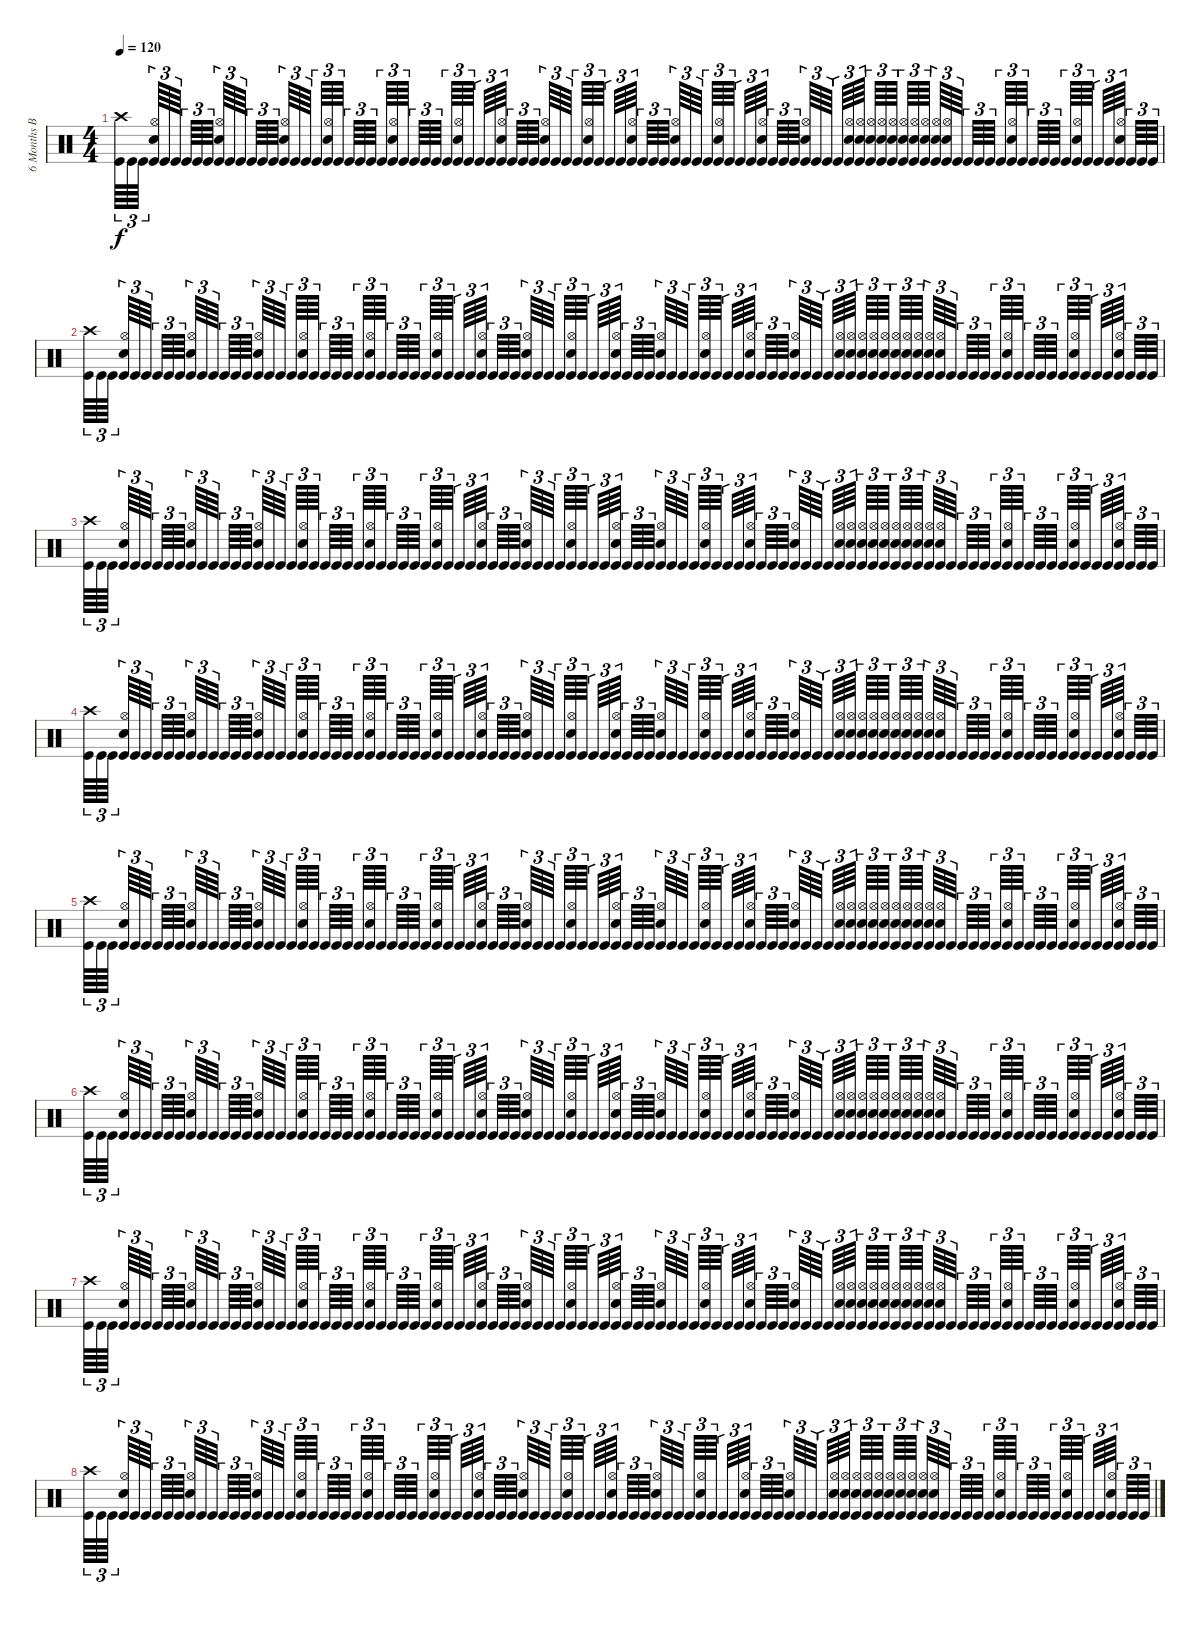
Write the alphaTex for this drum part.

\track ("6 Months Baby" "6 Months B") {instrument percussion}
\staff {score}
\articulation defaults
\ts (4 4)
\tempo 120
\clef neutral
\ks c
("Crash high (hit)" "Kick (hit)").64{tu (3 2) dy f} "Kick (hit)".64{tu (3 2)} "Kick (hit)".64{tu (3 2)} ("Hi-Hat (open)" "Snare (hit) 2" "Kick (hit)").64{tu (3 2)} "Kick (hit)".64{tu (3 2)} "Kick (hit)".64{tu (3 2)} "Kick (hit)".64{tu (3 2)} "Kick (hit)".64{tu (3 2)} "Kick (hit)".64{tu (3 2)} ("Hi-Hat (open)" "Snare (hit) 2" "Kick (hit)").64{tu (3 2)} "Kick (hit)".64{tu (3 2)} "Kick (hit)".64{tu (3 2)} "Kick (hit)".64{tu (3 2)} "Kick (hit)".64{tu (3 2)} "Kick (hit)".64{tu (3 2)} ("Hi-Hat (open)" "Snare (hit) 2" "Kick (hit)").64{tu (3 2)} "Kick (hit)".64{tu (3 2)} "Kick (hit)".64{tu (3 2)} "Kick (hit)".64{tu (3 2)} ("Hi-Hat (open)" "Snare (hit) 2" "Kick (hit)").64{tu (3 2)} "Kick (hit)".64{tu (3 2)} "Kick (hit)".64{tu (3 2)} "Kick (hit)".64{tu (3 2)} "Kick (hit)".64{tu (3 2)} "Kick (hit)".64{tu (3 2)} ("Hi-Hat (open)" "Snare (hit) 2" "Kick (hit)").64{tu (3 2)} "Kick (hit)".64{tu (3 2)} "Kick (hit)".64{tu (3 2)} "Kick (hit)".64{tu (3 2)} "Kick (hit)".64{tu (3 2)} "Kick (hit)".64{tu (3 2)} ("Hi-Hat (open)" "Snare (hit) 2" "Kick (hit)").64{tu (3 2)} "Kick (hit)".64{tu (3 2)} "Kick (hit)".64{tu (3 2)} "Kick (hit)".64{tu (3 2)} ("Hi-Hat (open)" "Snare (hit) 2" "Kick (hit)").64{tu (3 2)} "Kick (hit)".64{tu (3 2)} "Kick (hit)".64{tu (3 2)} "Kick (hit)".64{tu (3 2)} ("Hi-Hat (open)" "Snare (hit) 2" "Kick (hit)").64{tu (3 2)} "Kick (hit)".64{tu (3 2)} "Kick (hit)".64{tu (3 2)} "Kick (hit)".64{tu (3 2)} ("Hi-Hat (open)" "Snare (hit) 2" "Kick (hit)").64{tu (3 2)} "Kick (hit)".64{tu (3 2)} "Kick (hit)".64{tu (3 2)} "Kick (hit)".64{tu (3 2)} ("Hi-Hat (open)" "Snare (hit) 2" "Kick (hit)").64{tu (3 2)} "Kick (hit)".64{tu (3 2)} "Kick (hit)".64{tu (3 2)} "Kick (hit)".64{tu (3 2)} ("Hi-Hat (open)" "Snare (hit) 2" "Kick (hit)").64{tu (3 2)} "Kick (hit)".64{tu (3 2)} "Kick (hit)".64{tu (3 2)} "Kick (hit)".64{tu (3 2)} ("Hi-Hat (open)" "Snare (hit) 2" "Kick (hit)").64{tu (3 2)} "Kick (hit)".64{tu (3 2)} "Kick (hit)".64{tu (3 2)} "Kick (hit)".64{tu (3 2)} ("Hi-Hat (open)" "Snare (hit) 2" "Kick (hit)").64{tu (3 2)} "Kick (hit)".64{tu (3 2)} "Kick (hit)".64{tu (3 2)} "Kick (hit)".64{tu (3 2)} ("Hi-Hat (open)" "Snare (hit) 2" "Kick (hit)").64{tu (3 2)} "Kick (hit)".64{tu (3 2)} "Kick (hit)".64{tu (3 2)} "Kick (hit)".64{tu (3 2)} ("Hi-Hat (open)" "Snare (hit) 2" "Kick (hit)").64{tu (3 2)} ("Hi-Hat (open)" "Snare (hit) 2" "Kick (hit)").64{tu (3 2)} ("Hi-Hat (open)" "Snare (hit) 2" "Kick (hit)").64{tu (3 2)} ("Hi-Hat (open)" "Snare (hit) 2" "Kick (hit)").64{tu (3 2)} ("Hi-Hat (open)" "Snare (hit) 2" "Kick (hit)").64{tu (3 2)} ("Hi-Hat (open)" "Snare (hit) 2" "Kick (hit)").64{tu (3 2)} ("Hi-Hat (open)" "Snare (hit) 2" "Kick (hit)").64{tu (3 2)} ("Hi-Hat (open)" "Snare (hit) 2" "Kick (hit)").64{tu (3 2)} ("Hi-Hat (open)" "Snare (hit) 2" "Kick (hit)").64{tu (3 2)} ("Hi-Hat (open)" "Snare (hit) 2" "Kick (hit)").64{tu (3 2)} "Kick (hit)".64{tu (3 2)} "Kick (hit)".64{tu (3 2)} "Kick (hit)".64{tu (3 2)} "Kick (hit)".64{tu (3 2)} "Kick (hit)".64{tu (3 2)} ("Hi-Hat (open)" "Snare (hit) 2" "Kick (hit)").64{tu (3 2)} "Kick (hit)".64{tu (3 2)} "Kick (hit)".64{tu (3 2)} "Kick (hit)".64{tu (3 2)} "Kick (hit)".64{tu (3 2)} "Kick (hit)".64{tu (3 2)} ("Hi-Hat (open)" "Snare (hit) 2" "Kick (hit)").64{tu (3 2)} "Kick (hit)".64{tu (3 2)} "Kick (hit)".64{tu (3 2)} "Kick (hit)".64{tu (3 2)} ("Hi-Hat (open)" "Snare (hit) 2" "Kick (hit)").64{tu (3 2)} "Kick (hit)".64{tu (3 2)} "Kick (hit)".64{tu (3 2)} "Kick (hit)".64{tu (3 2)} |
("Crash high (hit)" "Kick (hit)").64{tu (3 2)} "Kick (hit)".64{tu (3 2)} "Kick (hit)".64{tu (3 2)} ("Hi-Hat (open)" "Snare (hit) 2" "Kick (hit)").64{tu (3 2)} "Kick (hit)".64{tu (3 2)} "Kick (hit)".64{tu (3 2)} "Kick (hit)".64{tu (3 2)} "Kick (hit)".64{tu (3 2)} "Kick (hit)".64{tu (3 2)} ("Hi-Hat (open)" "Snare (hit) 2" "Kick (hit)").64{tu (3 2)} "Kick (hit)".64{tu (3 2)} "Kick (hit)".64{tu (3 2)} "Kick (hit)".64{tu (3 2)} "Kick (hit)".64{tu (3 2)} "Kick (hit)".64{tu (3 2)} ("Hi-Hat (open)" "Snare (hit) 2" "Kick (hit)").64{tu (3 2)} "Kick (hit)".64{tu (3 2)} "Kick (hit)".64{tu (3 2)} "Kick (hit)".64{tu (3 2)} ("Hi-Hat (open)" "Snare (hit) 2" "Kick (hit)").64{tu (3 2)} "Kick (hit)".64{tu (3 2)} "Kick (hit)".64{tu (3 2)} "Kick (hit)".64{tu (3 2)} "Kick (hit)".64{tu (3 2)} "Kick (hit)".64{tu (3 2)} ("Hi-Hat (open)" "Snare (hit) 2" "Kick (hit)").64{tu (3 2)} "Kick (hit)".64{tu (3 2)} "Kick (hit)".64{tu (3 2)} "Kick (hit)".64{tu (3 2)} "Kick (hit)".64{tu (3 2)} "Kick (hit)".64{tu (3 2)} ("Hi-Hat (open)" "Snare (hit) 2" "Kick (hit)").64{tu (3 2)} "Kick (hit)".64{tu (3 2)} "Kick (hit)".64{tu (3 2)} "Kick (hit)".64{tu (3 2)} ("Hi-Hat (open)" "Snare (hit) 2" "Kick (hit)").64{tu (3 2)} "Kick (hit)".64{tu (3 2)} "Kick (hit)".64{tu (3 2)} "Kick (hit)".64{tu (3 2)} ("Hi-Hat (open)" "Snare (hit) 2" "Kick (hit)").64{tu (3 2)} "Kick (hit)".64{tu (3 2)} "Kick (hit)".64{tu (3 2)} "Kick (hit)".64{tu (3 2)} ("Hi-Hat (open)" "Snare (hit) 2" "Kick (hit)").64{tu (3 2)} "Kick (hit)".64{tu (3 2)} "Kick (hit)".64{tu (3 2)} "Kick (hit)".64{tu (3 2)} ("Hi-Hat (open)" "Snare (hit) 2" "Kick (hit)").64{tu (3 2)} "Kick (hit)".64{tu (3 2)} "Kick (hit)".64{tu (3 2)} "Kick (hit)".64{tu (3 2)} ("Hi-Hat (open)" "Snare (hit) 2" "Kick (hit)").64{tu (3 2)} "Kick (hit)".64{tu (3 2)} "Kick (hit)".64{tu (3 2)} "Kick (hit)".64{tu (3 2)} ("Hi-Hat (open)" "Snare (hit) 2" "Kick (hit)").64{tu (3 2)} "Kick (hit)".64{tu (3 2)} "Kick (hit)".64{tu (3 2)} "Kick (hit)".64{tu (3 2)} ("Hi-Hat (open)" "Snare (hit) 2" "Kick (hit)").64{tu (3 2)} "Kick (hit)".64{tu (3 2)} "Kick (hit)".64{tu (3 2)} "Kick (hit)".64{tu (3 2)} ("Hi-Hat (open)" "Snare (hit) 2" "Kick (hit)").64{tu (3 2)} "Kick (hit)".64{tu (3 2)} "Kick (hit)".64{tu (3 2)} "Kick (hit)".64{tu (3 2)} ("Hi-Hat (open)" "Snare (hit) 2" "Kick (hit)").64{tu (3 2)} ("Hi-Hat (open)" "Snare (hit) 2" "Kick (hit)").64{tu (3 2)} ("Hi-Hat (open)" "Snare (hit) 2" "Kick (hit)").64{tu (3 2)} ("Hi-Hat (open)" "Snare (hit) 2" "Kick (hit)").64{tu (3 2)} ("Hi-Hat (open)" "Snare (hit) 2" "Kick (hit)").64{tu (3 2)} ("Hi-Hat (open)" "Snare (hit) 2" "Kick (hit)").64{tu (3 2)} ("Hi-Hat (open)" "Snare (hit) 2" "Kick (hit)").64{tu (3 2)} ("Hi-Hat (open)" "Snare (hit) 2" "Kick (hit)").64{tu (3 2)} ("Hi-Hat (open)" "Snare (hit) 2" "Kick (hit)").64{tu (3 2)} ("Hi-Hat (open)" "Snare (hit) 2" "Kick (hit)").64{tu (3 2)} "Kick (hit)".64{tu (3 2)} "Kick (hit)".64{tu (3 2)} "Kick (hit)".64{tu (3 2)} "Kick (hit)".64{tu (3 2)} "Kick (hit)".64{tu (3 2)} ("Hi-Hat (open)" "Snare (hit) 2" "Kick (hit)").64{tu (3 2)} "Kick (hit)".64{tu (3 2)} "Kick (hit)".64{tu (3 2)} "Kick (hit)".64{tu (3 2)} "Kick (hit)".64{tu (3 2)} "Kick (hit)".64{tu (3 2)} ("Hi-Hat (open)" "Snare (hit) 2" "Kick (hit)").64{tu (3 2)} "Kick (hit)".64{tu (3 2)} "Kick (hit)".64{tu (3 2)} "Kick (hit)".64{tu (3 2)} ("Hi-Hat (open)" "Snare (hit) 2" "Kick (hit)").64{tu (3 2)} "Kick (hit)".64{tu (3 2)} "Kick (hit)".64{tu (3 2)} "Kick (hit)".64{tu (3 2)} |
("Crash high (hit)" "Kick (hit)").64{tu (3 2)} "Kick (hit)".64{tu (3 2)} "Kick (hit)".64{tu (3 2)} ("Hi-Hat (open)" "Snare (hit) 2" "Kick (hit)").64{tu (3 2)} "Kick (hit)".64{tu (3 2)} "Kick (hit)".64{tu (3 2)} "Kick (hit)".64{tu (3 2)} "Kick (hit)".64{tu (3 2)} "Kick (hit)".64{tu (3 2)} ("Hi-Hat (open)" "Snare (hit) 2" "Kick (hit)").64{tu (3 2)} "Kick (hit)".64{tu (3 2)} "Kick (hit)".64{tu (3 2)} "Kick (hit)".64{tu (3 2)} "Kick (hit)".64{tu (3 2)} "Kick (hit)".64{tu (3 2)} ("Hi-Hat (open)" "Snare (hit) 2" "Kick (hit)").64{tu (3 2)} "Kick (hit)".64{tu (3 2)} "Kick (hit)".64{tu (3 2)} "Kick (hit)".64{tu (3 2)} ("Hi-Hat (open)" "Snare (hit) 2" "Kick (hit)").64{tu (3 2)} "Kick (hit)".64{tu (3 2)} "Kick (hit)".64{tu (3 2)} "Kick (hit)".64{tu (3 2)} "Kick (hit)".64{tu (3 2)} "Kick (hit)".64{tu (3 2)} ("Hi-Hat (open)" "Snare (hit) 2" "Kick (hit)").64{tu (3 2)} "Kick (hit)".64{tu (3 2)} "Kick (hit)".64{tu (3 2)} "Kick (hit)".64{tu (3 2)} "Kick (hit)".64{tu (3 2)} "Kick (hit)".64{tu (3 2)} ("Hi-Hat (open)" "Snare (hit) 2" "Kick (hit)").64{tu (3 2)} "Kick (hit)".64{tu (3 2)} "Kick (hit)".64{tu (3 2)} "Kick (hit)".64{tu (3 2)} ("Hi-Hat (open)" "Snare (hit) 2" "Kick (hit)").64{tu (3 2)} "Kick (hit)".64{tu (3 2)} "Kick (hit)".64{tu (3 2)} "Kick (hit)".64{tu (3 2)} ("Hi-Hat (open)" "Snare (hit) 2" "Kick (hit)").64{tu (3 2)} "Kick (hit)".64{tu (3 2)} "Kick (hit)".64{tu (3 2)} "Kick (hit)".64{tu (3 2)} ("Hi-Hat (open)" "Snare (hit) 2" "Kick (hit)").64{tu (3 2)} "Kick (hit)".64{tu (3 2)} "Kick (hit)".64{tu (3 2)} "Kick (hit)".64{tu (3 2)} ("Hi-Hat (open)" "Snare (hit) 2" "Kick (hit)").64{tu (3 2)} "Kick (hit)".64{tu (3 2)} "Kick (hit)".64{tu (3 2)} "Kick (hit)".64{tu (3 2)} ("Hi-Hat (open)" "Snare (hit) 2" "Kick (hit)").64{tu (3 2)} "Kick (hit)".64{tu (3 2)} "Kick (hit)".64{tu (3 2)} "Kick (hit)".64{tu (3 2)} ("Hi-Hat (open)" "Snare (hit) 2" "Kick (hit)").64{tu (3 2)} "Kick (hit)".64{tu (3 2)} "Kick (hit)".64{tu (3 2)} "Kick (hit)".64{tu (3 2)} ("Hi-Hat (open)" "Snare (hit) 2" "Kick (hit)").64{tu (3 2)} "Kick (hit)".64{tu (3 2)} "Kick (hit)".64{tu (3 2)} "Kick (hit)".64{tu (3 2)} ("Hi-Hat (open)" "Snare (hit) 2" "Kick (hit)").64{tu (3 2)} "Kick (hit)".64{tu (3 2)} "Kick (hit)".64{tu (3 2)} "Kick (hit)".64{tu (3 2)} ("Hi-Hat (open)" "Snare (hit) 2" "Kick (hit)").64{tu (3 2)} ("Hi-Hat (open)" "Snare (hit) 2" "Kick (hit)").64{tu (3 2)} ("Hi-Hat (open)" "Snare (hit) 2" "Kick (hit)").64{tu (3 2)} ("Hi-Hat (open)" "Snare (hit) 2" "Kick (hit)").64{tu (3 2)} ("Hi-Hat (open)" "Snare (hit) 2" "Kick (hit)").64{tu (3 2)} ("Hi-Hat (open)" "Snare (hit) 2" "Kick (hit)").64{tu (3 2)} ("Hi-Hat (open)" "Snare (hit) 2" "Kick (hit)").64{tu (3 2)} ("Hi-Hat (open)" "Snare (hit) 2" "Kick (hit)").64{tu (3 2)} ("Hi-Hat (open)" "Snare (hit) 2" "Kick (hit)").64{tu (3 2)} ("Hi-Hat (open)" "Snare (hit) 2" "Kick (hit)").64{tu (3 2)} "Kick (hit)".64{tu (3 2)} "Kick (hit)".64{tu (3 2)} "Kick (hit)".64{tu (3 2)} "Kick (hit)".64{tu (3 2)} "Kick (hit)".64{tu (3 2)} ("Hi-Hat (open)" "Snare (hit) 2" "Kick (hit)").64{tu (3 2)} "Kick (hit)".64{tu (3 2)} "Kick (hit)".64{tu (3 2)} "Kick (hit)".64{tu (3 2)} "Kick (hit)".64{tu (3 2)} "Kick (hit)".64{tu (3 2)} ("Hi-Hat (open)" "Snare (hit) 2" "Kick (hit)").64{tu (3 2)} "Kick (hit)".64{tu (3 2)} "Kick (hit)".64{tu (3 2)} "Kick (hit)".64{tu (3 2)} ("Hi-Hat (open)" "Snare (hit) 2" "Kick (hit)").64{tu (3 2)} "Kick (hit)".64{tu (3 2)} "Kick (hit)".64{tu (3 2)} "Kick (hit)".64{tu (3 2)} |
("Crash high (hit)" "Kick (hit)").64{tu (3 2)} "Kick (hit)".64{tu (3 2)} "Kick (hit)".64{tu (3 2)} ("Hi-Hat (open)" "Snare (hit) 2" "Kick (hit)").64{tu (3 2)} "Kick (hit)".64{tu (3 2)} "Kick (hit)".64{tu (3 2)} "Kick (hit)".64{tu (3 2)} "Kick (hit)".64{tu (3 2)} "Kick (hit)".64{tu (3 2)} ("Hi-Hat (open)" "Snare (hit) 2" "Kick (hit)").64{tu (3 2)} "Kick (hit)".64{tu (3 2)} "Kick (hit)".64{tu (3 2)} "Kick (hit)".64{tu (3 2)} "Kick (hit)".64{tu (3 2)} "Kick (hit)".64{tu (3 2)} ("Hi-Hat (open)" "Snare (hit) 2" "Kick (hit)").64{tu (3 2)} "Kick (hit)".64{tu (3 2)} "Kick (hit)".64{tu (3 2)} "Kick (hit)".64{tu (3 2)} ("Hi-Hat (open)" "Snare (hit) 2" "Kick (hit)").64{tu (3 2)} "Kick (hit)".64{tu (3 2)} "Kick (hit)".64{tu (3 2)} "Kick (hit)".64{tu (3 2)} "Kick (hit)".64{tu (3 2)} "Kick (hit)".64{tu (3 2)} ("Hi-Hat (open)" "Snare (hit) 2" "Kick (hit)").64{tu (3 2)} "Kick (hit)".64{tu (3 2)} "Kick (hit)".64{tu (3 2)} "Kick (hit)".64{tu (3 2)} "Kick (hit)".64{tu (3 2)} "Kick (hit)".64{tu (3 2)} ("Hi-Hat (open)" "Snare (hit) 2" "Kick (hit)").64{tu (3 2)} "Kick (hit)".64{tu (3 2)} "Kick (hit)".64{tu (3 2)} "Kick (hit)".64{tu (3 2)} ("Hi-Hat (open)" "Snare (hit) 2" "Kick (hit)").64{tu (3 2)} "Kick (hit)".64{tu (3 2)} "Kick (hit)".64{tu (3 2)} "Kick (hit)".64{tu (3 2)} ("Hi-Hat (open)" "Snare (hit) 2" "Kick (hit)").64{tu (3 2)} "Kick (hit)".64{tu (3 2)} "Kick (hit)".64{tu (3 2)} "Kick (hit)".64{tu (3 2)} ("Hi-Hat (open)" "Snare (hit) 2" "Kick (hit)").64{tu (3 2)} "Kick (hit)".64{tu (3 2)} "Kick (hit)".64{tu (3 2)} "Kick (hit)".64{tu (3 2)} ("Hi-Hat (open)" "Snare (hit) 2" "Kick (hit)").64{tu (3 2)} "Kick (hit)".64{tu (3 2)} "Kick (hit)".64{tu (3 2)} "Kick (hit)".64{tu (3 2)} ("Hi-Hat (open)" "Snare (hit) 2" "Kick (hit)").64{tu (3 2)} "Kick (hit)".64{tu (3 2)} "Kick (hit)".64{tu (3 2)} "Kick (hit)".64{tu (3 2)} ("Hi-Hat (open)" "Snare (hit) 2" "Kick (hit)").64{tu (3 2)} "Kick (hit)".64{tu (3 2)} "Kick (hit)".64{tu (3 2)} "Kick (hit)".64{tu (3 2)} ("Hi-Hat (open)" "Snare (hit) 2" "Kick (hit)").64{tu (3 2)} "Kick (hit)".64{tu (3 2)} "Kick (hit)".64{tu (3 2)} "Kick (hit)".64{tu (3 2)} ("Hi-Hat (open)" "Snare (hit) 2" "Kick (hit)").64{tu (3 2)} "Kick (hit)".64{tu (3 2)} "Kick (hit)".64{tu (3 2)} "Kick (hit)".64{tu (3 2)} ("Hi-Hat (open)" "Snare (hit) 2" "Kick (hit)").64{tu (3 2)} ("Hi-Hat (open)" "Snare (hit) 2" "Kick (hit)").64{tu (3 2)} ("Hi-Hat (open)" "Snare (hit) 2" "Kick (hit)").64{tu (3 2)} ("Hi-Hat (open)" "Snare (hit) 2" "Kick (hit)").64{tu (3 2)} ("Hi-Hat (open)" "Snare (hit) 2" "Kick (hit)").64{tu (3 2)} ("Hi-Hat (open)" "Snare (hit) 2" "Kick (hit)").64{tu (3 2)} ("Hi-Hat (open)" "Snare (hit) 2" "Kick (hit)").64{tu (3 2)} ("Hi-Hat (open)" "Snare (hit) 2" "Kick (hit)").64{tu (3 2)} ("Hi-Hat (open)" "Snare (hit) 2" "Kick (hit)").64{tu (3 2)} ("Hi-Hat (open)" "Snare (hit) 2" "Kick (hit)").64{tu (3 2)} "Kick (hit)".64{tu (3 2)} "Kick (hit)".64{tu (3 2)} "Kick (hit)".64{tu (3 2)} "Kick (hit)".64{tu (3 2)} "Kick (hit)".64{tu (3 2)} ("Hi-Hat (open)" "Snare (hit) 2" "Kick (hit)").64{tu (3 2)} "Kick (hit)".64{tu (3 2)} "Kick (hit)".64{tu (3 2)} "Kick (hit)".64{tu (3 2)} "Kick (hit)".64{tu (3 2)} "Kick (hit)".64{tu (3 2)} ("Hi-Hat (open)" "Snare (hit) 2" "Kick (hit)").64{tu (3 2)} "Kick (hit)".64{tu (3 2)} "Kick (hit)".64{tu (3 2)} "Kick (hit)".64{tu (3 2)} ("Hi-Hat (open)" "Snare (hit) 2" "Kick (hit)").64{tu (3 2)} "Kick (hit)".64{tu (3 2)} "Kick (hit)".64{tu (3 2)} "Kick (hit)".64{tu (3 2)} |
("Crash high (hit)" "Kick (hit)").64{tu (3 2)} "Kick (hit)".64{tu (3 2)} "Kick (hit)".64{tu (3 2)} ("Hi-Hat (open)" "Snare (hit) 2" "Kick (hit)").64{tu (3 2)} "Kick (hit)".64{tu (3 2)} "Kick (hit)".64{tu (3 2)} "Kick (hit)".64{tu (3 2)} "Kick (hit)".64{tu (3 2)} "Kick (hit)".64{tu (3 2)} ("Hi-Hat (open)" "Snare (hit) 2" "Kick (hit)").64{tu (3 2)} "Kick (hit)".64{tu (3 2)} "Kick (hit)".64{tu (3 2)} "Kick (hit)".64{tu (3 2)} "Kick (hit)".64{tu (3 2)} "Kick (hit)".64{tu (3 2)} ("Hi-Hat (open)" "Snare (hit) 2" "Kick (hit)").64{tu (3 2)} "Kick (hit)".64{tu (3 2)} "Kick (hit)".64{tu (3 2)} "Kick (hit)".64{tu (3 2)} ("Hi-Hat (open)" "Snare (hit) 2" "Kick (hit)").64{tu (3 2)} "Kick (hit)".64{tu (3 2)} "Kick (hit)".64{tu (3 2)} "Kick (hit)".64{tu (3 2)} "Kick (hit)".64{tu (3 2)} "Kick (hit)".64{tu (3 2)} ("Hi-Hat (open)" "Snare (hit) 2" "Kick (hit)").64{tu (3 2)} "Kick (hit)".64{tu (3 2)} "Kick (hit)".64{tu (3 2)} "Kick (hit)".64{tu (3 2)} "Kick (hit)".64{tu (3 2)} "Kick (hit)".64{tu (3 2)} ("Hi-Hat (open)" "Snare (hit) 2" "Kick (hit)").64{tu (3 2)} "Kick (hit)".64{tu (3 2)} "Kick (hit)".64{tu (3 2)} "Kick (hit)".64{tu (3 2)} ("Hi-Hat (open)" "Snare (hit) 2" "Kick (hit)").64{tu (3 2)} "Kick (hit)".64{tu (3 2)} "Kick (hit)".64{tu (3 2)} "Kick (hit)".64{tu (3 2)} ("Hi-Hat (open)" "Snare (hit) 2" "Kick (hit)").64{tu (3 2)} "Kick (hit)".64{tu (3 2)} "Kick (hit)".64{tu (3 2)} "Kick (hit)".64{tu (3 2)} ("Hi-Hat (open)" "Snare (hit) 2" "Kick (hit)").64{tu (3 2)} "Kick (hit)".64{tu (3 2)} "Kick (hit)".64{tu (3 2)} "Kick (hit)".64{tu (3 2)} ("Hi-Hat (open)" "Snare (hit) 2" "Kick (hit)").64{tu (3 2)} "Kick (hit)".64{tu (3 2)} "Kick (hit)".64{tu (3 2)} "Kick (hit)".64{tu (3 2)} ("Hi-Hat (open)" "Snare (hit) 2" "Kick (hit)").64{tu (3 2)} "Kick (hit)".64{tu (3 2)} "Kick (hit)".64{tu (3 2)} "Kick (hit)".64{tu (3 2)} ("Hi-Hat (open)" "Snare (hit) 2" "Kick (hit)").64{tu (3 2)} "Kick (hit)".64{tu (3 2)} "Kick (hit)".64{tu (3 2)} "Kick (hit)".64{tu (3 2)} ("Hi-Hat (open)" "Snare (hit) 2" "Kick (hit)").64{tu (3 2)} "Kick (hit)".64{tu (3 2)} "Kick (hit)".64{tu (3 2)} "Kick (hit)".64{tu (3 2)} ("Hi-Hat (open)" "Snare (hit) 2" "Kick (hit)").64{tu (3 2)} "Kick (hit)".64{tu (3 2)} "Kick (hit)".64{tu (3 2)} "Kick (hit)".64{tu (3 2)} ("Hi-Hat (open)" "Snare (hit) 2" "Kick (hit)").64{tu (3 2)} ("Hi-Hat (open)" "Snare (hit) 2" "Kick (hit)").64{tu (3 2)} ("Hi-Hat (open)" "Snare (hit) 2" "Kick (hit)").64{tu (3 2)} ("Hi-Hat (open)" "Snare (hit) 2" "Kick (hit)").64{tu (3 2)} ("Hi-Hat (open)" "Snare (hit) 2" "Kick (hit)").64{tu (3 2)} ("Hi-Hat (open)" "Snare (hit) 2" "Kick (hit)").64{tu (3 2)} ("Hi-Hat (open)" "Snare (hit) 2" "Kick (hit)").64{tu (3 2)} ("Hi-Hat (open)" "Snare (hit) 2" "Kick (hit)").64{tu (3 2)} ("Hi-Hat (open)" "Snare (hit) 2" "Kick (hit)").64{tu (3 2)} ("Hi-Hat (open)" "Snare (hit) 2" "Kick (hit)").64{tu (3 2)} "Kick (hit)".64{tu (3 2)} "Kick (hit)".64{tu (3 2)} "Kick (hit)".64{tu (3 2)} "Kick (hit)".64{tu (3 2)} "Kick (hit)".64{tu (3 2)} ("Hi-Hat (open)" "Snare (hit) 2" "Kick (hit)").64{tu (3 2)} "Kick (hit)".64{tu (3 2)} "Kick (hit)".64{tu (3 2)} "Kick (hit)".64{tu (3 2)} "Kick (hit)".64{tu (3 2)} "Kick (hit)".64{tu (3 2)} ("Hi-Hat (open)" "Snare (hit) 2" "Kick (hit)").64{tu (3 2)} "Kick (hit)".64{tu (3 2)} "Kick (hit)".64{tu (3 2)} "Kick (hit)".64{tu (3 2)} ("Hi-Hat (open)" "Snare (hit) 2" "Kick (hit)").64{tu (3 2)} "Kick (hit)".64{tu (3 2)} "Kick (hit)".64{tu (3 2)} "Kick (hit)".64{tu (3 2)} |
("Crash high (hit)" "Kick (hit)").64{tu (3 2)} "Kick (hit)".64{tu (3 2)} "Kick (hit)".64{tu (3 2)} ("Hi-Hat (open)" "Snare (hit) 2" "Kick (hit)").64{tu (3 2)} "Kick (hit)".64{tu (3 2)} "Kick (hit)".64{tu (3 2)} "Kick (hit)".64{tu (3 2)} "Kick (hit)".64{tu (3 2)} "Kick (hit)".64{tu (3 2)} ("Hi-Hat (open)" "Snare (hit) 2" "Kick (hit)").64{tu (3 2)} "Kick (hit)".64{tu (3 2)} "Kick (hit)".64{tu (3 2)} "Kick (hit)".64{tu (3 2)} "Kick (hit)".64{tu (3 2)} "Kick (hit)".64{tu (3 2)} ("Hi-Hat (open)" "Snare (hit) 2" "Kick (hit)").64{tu (3 2)} "Kick (hit)".64{tu (3 2)} "Kick (hit)".64{tu (3 2)} "Kick (hit)".64{tu (3 2)} ("Hi-Hat (open)" "Snare (hit) 2" "Kick (hit)").64{tu (3 2)} "Kick (hit)".64{tu (3 2)} "Kick (hit)".64{tu (3 2)} "Kick (hit)".64{tu (3 2)} "Kick (hit)".64{tu (3 2)} "Kick (hit)".64{tu (3 2)} ("Hi-Hat (open)" "Snare (hit) 2" "Kick (hit)").64{tu (3 2)} "Kick (hit)".64{tu (3 2)} "Kick (hit)".64{tu (3 2)} "Kick (hit)".64{tu (3 2)} "Kick (hit)".64{tu (3 2)} "Kick (hit)".64{tu (3 2)} ("Hi-Hat (open)" "Snare (hit) 2" "Kick (hit)").64{tu (3 2)} "Kick (hit)".64{tu (3 2)} "Kick (hit)".64{tu (3 2)} "Kick (hit)".64{tu (3 2)} ("Hi-Hat (open)" "Snare (hit) 2" "Kick (hit)").64{tu (3 2)} "Kick (hit)".64{tu (3 2)} "Kick (hit)".64{tu (3 2)} "Kick (hit)".64{tu (3 2)} ("Hi-Hat (open)" "Snare (hit) 2" "Kick (hit)").64{tu (3 2)} "Kick (hit)".64{tu (3 2)} "Kick (hit)".64{tu (3 2)} "Kick (hit)".64{tu (3 2)} ("Hi-Hat (open)" "Snare (hit) 2" "Kick (hit)").64{tu (3 2)} "Kick (hit)".64{tu (3 2)} "Kick (hit)".64{tu (3 2)} "Kick (hit)".64{tu (3 2)} ("Hi-Hat (open)" "Snare (hit) 2" "Kick (hit)").64{tu (3 2)} "Kick (hit)".64{tu (3 2)} "Kick (hit)".64{tu (3 2)} "Kick (hit)".64{tu (3 2)} ("Hi-Hat (open)" "Snare (hit) 2" "Kick (hit)").64{tu (3 2)} "Kick (hit)".64{tu (3 2)} "Kick (hit)".64{tu (3 2)} "Kick (hit)".64{tu (3 2)} ("Hi-Hat (open)" "Snare (hit) 2" "Kick (hit)").64{tu (3 2)} "Kick (hit)".64{tu (3 2)} "Kick (hit)".64{tu (3 2)} "Kick (hit)".64{tu (3 2)} ("Hi-Hat (open)" "Snare (hit) 2" "Kick (hit)").64{tu (3 2)} "Kick (hit)".64{tu (3 2)} "Kick (hit)".64{tu (3 2)} "Kick (hit)".64{tu (3 2)} ("Hi-Hat (open)" "Snare (hit) 2" "Kick (hit)").64{tu (3 2)} "Kick (hit)".64{tu (3 2)} "Kick (hit)".64{tu (3 2)} "Kick (hit)".64{tu (3 2)} ("Hi-Hat (open)" "Snare (hit) 2" "Kick (hit)").64{tu (3 2)} ("Hi-Hat (open)" "Snare (hit) 2" "Kick (hit)").64{tu (3 2)} ("Hi-Hat (open)" "Snare (hit) 2" "Kick (hit)").64{tu (3 2)} ("Hi-Hat (open)" "Snare (hit) 2" "Kick (hit)").64{tu (3 2)} ("Hi-Hat (open)" "Snare (hit) 2" "Kick (hit)").64{tu (3 2)} ("Hi-Hat (open)" "Snare (hit) 2" "Kick (hit)").64{tu (3 2)} ("Hi-Hat (open)" "Snare (hit) 2" "Kick (hit)").64{tu (3 2)} ("Hi-Hat (open)" "Snare (hit) 2" "Kick (hit)").64{tu (3 2)} ("Hi-Hat (open)" "Snare (hit) 2" "Kick (hit)").64{tu (3 2)} ("Hi-Hat (open)" "Snare (hit) 2" "Kick (hit)").64{tu (3 2)} "Kick (hit)".64{tu (3 2)} "Kick (hit)".64{tu (3 2)} "Kick (hit)".64{tu (3 2)} "Kick (hit)".64{tu (3 2)} "Kick (hit)".64{tu (3 2)} ("Hi-Hat (open)" "Snare (hit) 2" "Kick (hit)").64{tu (3 2)} "Kick (hit)".64{tu (3 2)} "Kick (hit)".64{tu (3 2)} "Kick (hit)".64{tu (3 2)} "Kick (hit)".64{tu (3 2)} "Kick (hit)".64{tu (3 2)} ("Hi-Hat (open)" "Snare (hit) 2" "Kick (hit)").64{tu (3 2)} "Kick (hit)".64{tu (3 2)} "Kick (hit)".64{tu (3 2)} "Kick (hit)".64{tu (3 2)} ("Hi-Hat (open)" "Snare (hit) 2" "Kick (hit)").64{tu (3 2)} "Kick (hit)".64{tu (3 2)} "Kick (hit)".64{tu (3 2)} "Kick (hit)".64{tu (3 2)} |
("Crash high (hit)" "Kick (hit)").64{tu (3 2)} "Kick (hit)".64{tu (3 2)} "Kick (hit)".64{tu (3 2)} ("Hi-Hat (open)" "Snare (hit) 2" "Kick (hit)").64{tu (3 2)} "Kick (hit)".64{tu (3 2)} "Kick (hit)".64{tu (3 2)} "Kick (hit)".64{tu (3 2)} "Kick (hit)".64{tu (3 2)} "Kick (hit)".64{tu (3 2)} ("Hi-Hat (open)" "Snare (hit) 2" "Kick (hit)").64{tu (3 2)} "Kick (hit)".64{tu (3 2)} "Kick (hit)".64{tu (3 2)} "Kick (hit)".64{tu (3 2)} "Kick (hit)".64{tu (3 2)} "Kick (hit)".64{tu (3 2)} ("Hi-Hat (open)" "Snare (hit) 2" "Kick (hit)").64{tu (3 2)} "Kick (hit)".64{tu (3 2)} "Kick (hit)".64{tu (3 2)} "Kick (hit)".64{tu (3 2)} ("Hi-Hat (open)" "Snare (hit) 2" "Kick (hit)").64{tu (3 2)} "Kick (hit)".64{tu (3 2)} "Kick (hit)".64{tu (3 2)} "Kick (hit)".64{tu (3 2)} "Kick (hit)".64{tu (3 2)} "Kick (hit)".64{tu (3 2)} ("Hi-Hat (open)" "Snare (hit) 2" "Kick (hit)").64{tu (3 2)} "Kick (hit)".64{tu (3 2)} "Kick (hit)".64{tu (3 2)} "Kick (hit)".64{tu (3 2)} "Kick (hit)".64{tu (3 2)} "Kick (hit)".64{tu (3 2)} ("Hi-Hat (open)" "Snare (hit) 2" "Kick (hit)").64{tu (3 2)} "Kick (hit)".64{tu (3 2)} "Kick (hit)".64{tu (3 2)} "Kick (hit)".64{tu (3 2)} ("Hi-Hat (open)" "Snare (hit) 2" "Kick (hit)").64{tu (3 2)} "Kick (hit)".64{tu (3 2)} "Kick (hit)".64{tu (3 2)} "Kick (hit)".64{tu (3 2)} ("Hi-Hat (open)" "Snare (hit) 2" "Kick (hit)").64{tu (3 2)} "Kick (hit)".64{tu (3 2)} "Kick (hit)".64{tu (3 2)} "Kick (hit)".64{tu (3 2)} ("Hi-Hat (open)" "Snare (hit) 2" "Kick (hit)").64{tu (3 2)} "Kick (hit)".64{tu (3 2)} "Kick (hit)".64{tu (3 2)} "Kick (hit)".64{tu (3 2)} ("Hi-Hat (open)" "Snare (hit) 2" "Kick (hit)").64{tu (3 2)} "Kick (hit)".64{tu (3 2)} "Kick (hit)".64{tu (3 2)} "Kick (hit)".64{tu (3 2)} ("Hi-Hat (open)" "Snare (hit) 2" "Kick (hit)").64{tu (3 2)} "Kick (hit)".64{tu (3 2)} "Kick (hit)".64{tu (3 2)} "Kick (hit)".64{tu (3 2)} ("Hi-Hat (open)" "Snare (hit) 2" "Kick (hit)").64{tu (3 2)} "Kick (hit)".64{tu (3 2)} "Kick (hit)".64{tu (3 2)} "Kick (hit)".64{tu (3 2)} ("Hi-Hat (open)" "Snare (hit) 2" "Kick (hit)").64{tu (3 2)} "Kick (hit)".64{tu (3 2)} "Kick (hit)".64{tu (3 2)} "Kick (hit)".64{tu (3 2)} ("Hi-Hat (open)" "Snare (hit) 2" "Kick (hit)").64{tu (3 2)} "Kick (hit)".64{tu (3 2)} "Kick (hit)".64{tu (3 2)} "Kick (hit)".64{tu (3 2)} ("Hi-Hat (open)" "Snare (hit) 2" "Kick (hit)").64{tu (3 2)} ("Hi-Hat (open)" "Snare (hit) 2" "Kick (hit)").64{tu (3 2)} ("Hi-Hat (open)" "Snare (hit) 2" "Kick (hit)").64{tu (3 2)} ("Hi-Hat (open)" "Snare (hit) 2" "Kick (hit)").64{tu (3 2)} ("Hi-Hat (open)" "Snare (hit) 2" "Kick (hit)").64{tu (3 2)} ("Hi-Hat (open)" "Snare (hit) 2" "Kick (hit)").64{tu (3 2)} ("Hi-Hat (open)" "Snare (hit) 2" "Kick (hit)").64{tu (3 2)} ("Hi-Hat (open)" "Snare (hit) 2" "Kick (hit)").64{tu (3 2)} ("Hi-Hat (open)" "Snare (hit) 2" "Kick (hit)").64{tu (3 2)} ("Hi-Hat (open)" "Snare (hit) 2" "Kick (hit)").64{tu (3 2)} "Kick (hit)".64{tu (3 2)} "Kick (hit)".64{tu (3 2)} "Kick (hit)".64{tu (3 2)} "Kick (hit)".64{tu (3 2)} "Kick (hit)".64{tu (3 2)} ("Hi-Hat (open)" "Snare (hit) 2" "Kick (hit)").64{tu (3 2)} "Kick (hit)".64{tu (3 2)} "Kick (hit)".64{tu (3 2)} "Kick (hit)".64{tu (3 2)} "Kick (hit)".64{tu (3 2)} "Kick (hit)".64{tu (3 2)} ("Hi-Hat (open)" "Snare (hit) 2" "Kick (hit)").64{tu (3 2)} "Kick (hit)".64{tu (3 2)} "Kick (hit)".64{tu (3 2)} "Kick (hit)".64{tu (3 2)} ("Hi-Hat (open)" "Snare (hit) 2" "Kick (hit)").64{tu (3 2)} "Kick (hit)".64{tu (3 2)} "Kick (hit)".64{tu (3 2)} "Kick (hit)".64{tu (3 2)} |
("Crash high (hit)" "Kick (hit)").64{tu (3 2)} "Kick (hit)".64{tu (3 2)} "Kick (hit)".64{tu (3 2)} ("Hi-Hat (open)" "Snare (hit) 2" "Kick (hit)").64{tu (3 2)} "Kick (hit)".64{tu (3 2)} "Kick (hit)".64{tu (3 2)} "Kick (hit)".64{tu (3 2)} "Kick (hit)".64{tu (3 2)} "Kick (hit)".64{tu (3 2)} ("Hi-Hat (open)" "Snare (hit) 2" "Kick (hit)").64{tu (3 2)} "Kick (hit)".64{tu (3 2)} "Kick (hit)".64{tu (3 2)} "Kick (hit)".64{tu (3 2)} "Kick (hit)".64{tu (3 2)} "Kick (hit)".64{tu (3 2)} ("Hi-Hat (open)" "Snare (hit) 2" "Kick (hit)").64{tu (3 2)} "Kick (hit)".64{tu (3 2)} "Kick (hit)".64{tu (3 2)} "Kick (hit)".64{tu (3 2)} ("Hi-Hat (open)" "Snare (hit) 2" "Kick (hit)").64{tu (3 2)} "Kick (hit)".64{tu (3 2)} "Kick (hit)".64{tu (3 2)} "Kick (hit)".64{tu (3 2)} "Kick (hit)".64{tu (3 2)} "Kick (hit)".64{tu (3 2)} ("Hi-Hat (open)" "Snare (hit) 2" "Kick (hit)").64{tu (3 2)} "Kick (hit)".64{tu (3 2)} "Kick (hit)".64{tu (3 2)} "Kick (hit)".64{tu (3 2)} "Kick (hit)".64{tu (3 2)} "Kick (hit)".64{tu (3 2)} ("Hi-Hat (open)" "Snare (hit) 2" "Kick (hit)").64{tu (3 2)} "Kick (hit)".64{tu (3 2)} "Kick (hit)".64{tu (3 2)} "Kick (hit)".64{tu (3 2)} ("Hi-Hat (open)" "Snare (hit) 2" "Kick (hit)").64{tu (3 2)} "Kick (hit)".64{tu (3 2)} "Kick (hit)".64{tu (3 2)} "Kick (hit)".64{tu (3 2)} ("Hi-Hat (open)" "Snare (hit) 2" "Kick (hit)").64{tu (3 2)} "Kick (hit)".64{tu (3 2)} "Kick (hit)".64{tu (3 2)} "Kick (hit)".64{tu (3 2)} ("Hi-Hat (open)" "Snare (hit) 2" "Kick (hit)").64{tu (3 2)} "Kick (hit)".64{tu (3 2)} "Kick (hit)".64{tu (3 2)} "Kick (hit)".64{tu (3 2)} ("Hi-Hat (open)" "Snare (hit) 2" "Kick (hit)").64{tu (3 2)} "Kick (hit)".64{tu (3 2)} "Kick (hit)".64{tu (3 2)} "Kick (hit)".64{tu (3 2)} ("Hi-Hat (open)" "Snare (hit) 2" "Kick (hit)").64{tu (3 2)} "Kick (hit)".64{tu (3 2)} "Kick (hit)".64{tu (3 2)} "Kick (hit)".64{tu (3 2)} ("Hi-Hat (open)" "Snare (hit) 2" "Kick (hit)").64{tu (3 2)} "Kick (hit)".64{tu (3 2)} "Kick (hit)".64{tu (3 2)} "Kick (hit)".64{tu (3 2)} ("Hi-Hat (open)" "Snare (hit) 2" "Kick (hit)").64{tu (3 2)} "Kick (hit)".64{tu (3 2)} "Kick (hit)".64{tu (3 2)} "Kick (hit)".64{tu (3 2)} ("Hi-Hat (open)" "Snare (hit) 2" "Kick (hit)").64{tu (3 2)} "Kick (hit)".64{tu (3 2)} "Kick (hit)".64{tu (3 2)} "Kick (hit)".64{tu (3 2)} ("Hi-Hat (open)" "Snare (hit) 2" "Kick (hit)").64{tu (3 2)} ("Hi-Hat (open)" "Snare (hit) 2" "Kick (hit)").64{tu (3 2)} ("Hi-Hat (open)" "Snare (hit) 2" "Kick (hit)").64{tu (3 2)} ("Hi-Hat (open)" "Snare (hit) 2" "Kick (hit)").64{tu (3 2)} ("Hi-Hat (open)" "Snare (hit) 2" "Kick (hit)").64{tu (3 2)} ("Hi-Hat (open)" "Snare (hit) 2" "Kick (hit)").64{tu (3 2)} ("Hi-Hat (open)" "Snare (hit) 2" "Kick (hit)").64{tu (3 2)} ("Hi-Hat (open)" "Snare (hit) 2" "Kick (hit)").64{tu (3 2)} ("Hi-Hat (open)" "Snare (hit) 2" "Kick (hit)").64{tu (3 2)} ("Hi-Hat (open)" "Snare (hit) 2" "Kick (hit)").64{tu (3 2)} "Kick (hit)".64{tu (3 2)} "Kick (hit)".64{tu (3 2)} "Kick (hit)".64{tu (3 2)} "Kick (hit)".64{tu (3 2)} "Kick (hit)".64{tu (3 2)} ("Hi-Hat (open)" "Snare (hit) 2" "Kick (hit)").64{tu (3 2)} "Kick (hit)".64{tu (3 2)} "Kick (hit)".64{tu (3 2)} "Kick (hit)".64{tu (3 2)} "Kick (hit)".64{tu (3 2)} "Kick (hit)".64{tu (3 2)} ("Hi-Hat (open)" "Snare (hit) 2" "Kick (hit)").64{tu (3 2)} "Kick (hit)".64{tu (3 2)} "Kick (hit)".64{tu (3 2)} "Kick (hit)".64{tu (3 2)} ("Hi-Hat (open)" "Snare (hit) 2" "Kick (hit)").64{tu (3 2)} "Kick (hit)".64{tu (3 2)} "Kick (hit)".64{tu (3 2)} "Kick (hit)".64{tu (3 2)}
